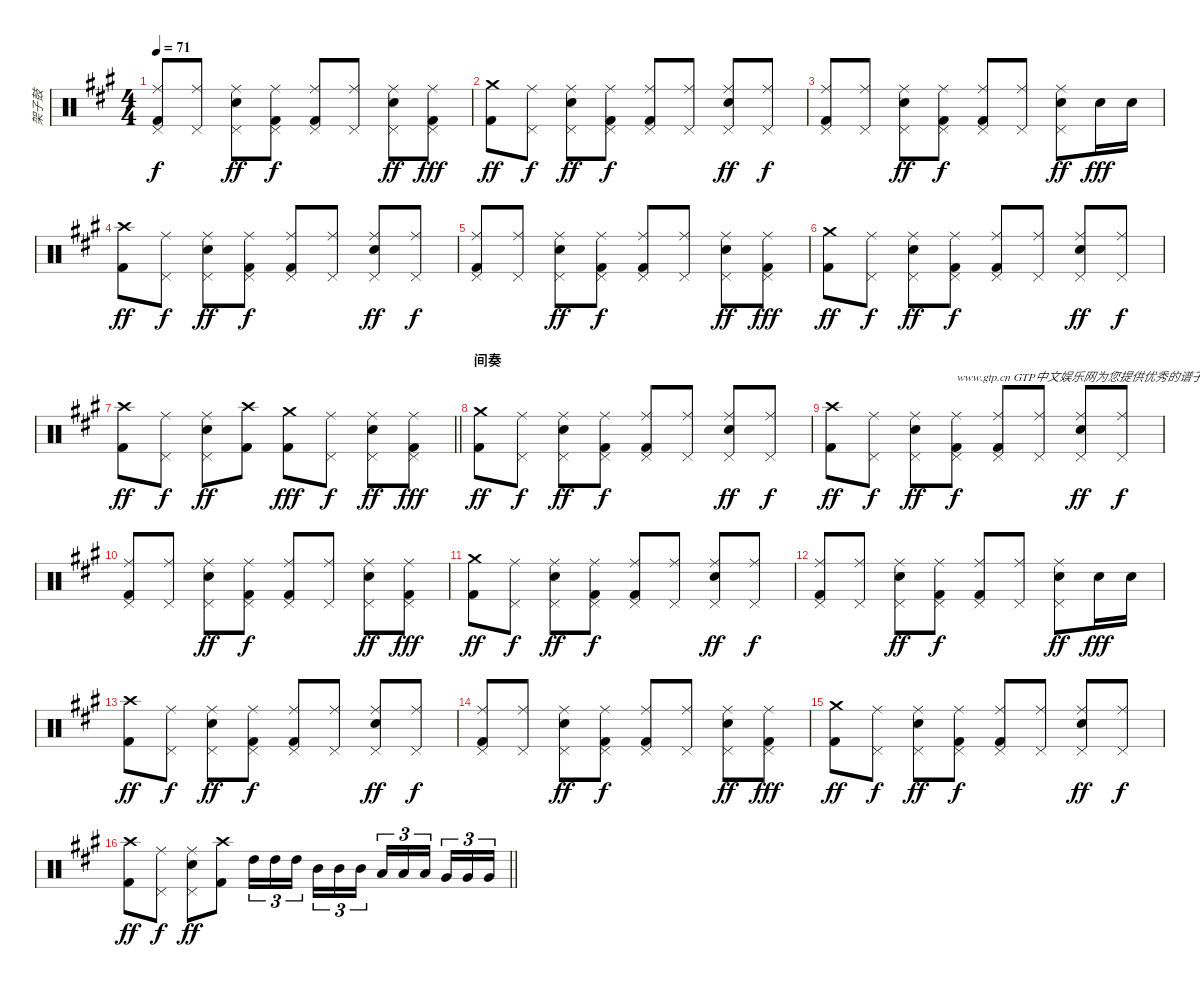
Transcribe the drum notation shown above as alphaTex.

\track ("架子鼓" "架子鼓") {instrument percussion}
\staff {score}
\articulation defaults
\ts (4 4)
\tempo 71
\clef neutral
\ks a
("Ride (middle)" "Pedal Hi-Hat (hit)" "Kick (hit) 2").8{dy f} ("Ride (middle)" "Pedal Hi-Hat (hit)").8 ("Ride (middle)" "Electric Snare (hit)" "Pedal Hi-Hat (hit)").8{dy ff} ("Ride (middle)" "Pedal Hi-Hat (hit)" "Kick (hit) 2").8{dy f} ("Ride (middle)" "Pedal Hi-Hat (hit)" "Kick (hit) 2").8 ("Ride (middle)" "Pedal Hi-Hat (hit)").8 ("Ride (middle)" "Electric Snare (hit)" "Pedal Hi-Hat (hit)").8{dy ff} ("Ride (middle)" "Pedal Hi-Hat (hit)" "Kick (hit) 2").8{dy fff} |
("Crash medium (hit)" "Kick (hit) 2").8{dy ff} ("Ride (middle)" "Pedal Hi-Hat (hit)").8{dy f} ("Ride (middle)" "Electric Snare (hit)" "Pedal Hi-Hat (hit)").8{dy ff} ("Ride (middle)" "Pedal Hi-Hat (hit)" "Kick (hit) 2").8{dy f} ("Ride (middle)" "Pedal Hi-Hat (hit)" "Kick (hit) 2").8 ("Ride (middle)" "Pedal Hi-Hat (hit)").8 ("Ride (middle)" "Electric Snare (hit)" "Pedal Hi-Hat (hit)").8{dy ff} ("Ride (middle)" "Pedal Hi-Hat (hit)").8{dy f} |
("Ride (middle)" "Pedal Hi-Hat (hit)" "Kick (hit) 2").8 ("Ride (middle)" "Pedal Hi-Hat (hit)").8 ("Ride (middle)" "Electric Snare (hit)" "Pedal Hi-Hat (hit)").8{dy ff} ("Ride (middle)" "Pedal Hi-Hat (hit)" "Kick (hit) 2").8{dy f} ("Ride (middle)" "Pedal Hi-Hat (hit)" "Kick (hit) 2").8 ("Ride (middle)" "Pedal Hi-Hat (hit)").8 ("Ride (middle)" "Electric Snare (hit)" "Pedal Hi-Hat (hit)").8{dy ff} "Electric Snare (hit)".16{dy fff} "Electric Snare (hit)".16 |
("Crash high (hit)" "Kick (hit) 2").8{dy ff} ("Ride (middle)" "Pedal Hi-Hat (hit)").8{dy f} ("Ride (middle)" "Electric Snare (hit)" "Pedal Hi-Hat (hit)").8{dy ff} ("Ride (middle)" "Pedal Hi-Hat (hit)" "Kick (hit) 2").8{dy f} ("Ride (middle)" "Pedal Hi-Hat (hit)" "Kick (hit) 2").8 ("Ride (middle)" "Pedal Hi-Hat (hit)").8 ("Ride (middle)" "Electric Snare (hit)" "Pedal Hi-Hat (hit)").8{dy ff} ("Ride (middle)" "Pedal Hi-Hat (hit)").8{dy f} |
("Ride (middle)" "Pedal Hi-Hat (hit)" "Kick (hit) 2").8 ("Ride (middle)" "Pedal Hi-Hat (hit)").8 ("Ride (middle)" "Electric Snare (hit)" "Pedal Hi-Hat (hit)").8{dy ff} ("Ride (middle)" "Pedal Hi-Hat (hit)" "Kick (hit) 2").8{dy f} ("Ride (middle)" "Pedal Hi-Hat (hit)" "Kick (hit) 2").8 ("Ride (middle)" "Pedal Hi-Hat (hit)").8 ("Ride (middle)" "Electric Snare (hit)" "Pedal Hi-Hat (hit)").8{dy ff} ("Ride (middle)" "Pedal Hi-Hat (hit)" "Kick (hit) 2").8{dy fff} |
("Crash medium (hit)" "Kick (hit) 2").8{dy ff} ("Ride (middle)" "Pedal Hi-Hat (hit)").8{dy f} ("Ride (middle)" "Electric Snare (hit)" "Pedal Hi-Hat (hit)").8{dy ff} ("Ride (middle)" "Pedal Hi-Hat (hit)" "Kick (hit) 2").8{dy f} ("Ride (middle)" "Pedal Hi-Hat (hit)" "Kick (hit) 2").8 ("Ride (middle)" "Pedal Hi-Hat (hit)").8 ("Ride (middle)" "Electric Snare (hit)" "Pedal Hi-Hat (hit)").8{dy ff} ("Ride (middle)" "Pedal Hi-Hat (hit)").8{dy f} |
\barLineRight lightlight
("Crash high (hit)" "Kick (hit) 2").8{dy ff} ("Ride (middle)" "Pedal Hi-Hat (hit)").8{dy f} ("Ride (middle)" "Electric Snare (hit)" "Pedal Hi-Hat (hit)").8{dy ff} ("Crash high (hit)" "Kick (hit) 2").8 ("Crash medium (hit)" "Kick (hit) 2").8{dy fff} ("Ride (middle)" "Pedal Hi-Hat (hit)").8{dy f} ("Ride (middle)" "Electric Snare (hit)" "Pedal Hi-Hat (hit)").8{dy ff} ("Ride (middle)" "Pedal Hi-Hat (hit)" "Kick (hit) 2").8{dy fff} |
\section ("" "间奏")
("Crash medium (hit)" "Kick (hit) 2").8{dy ff} ("Ride (middle)" "Pedal Hi-Hat (hit)").8{dy f} ("Ride (middle)" "Electric Snare (hit)" "Pedal Hi-Hat (hit)").8{dy ff} ("Ride (middle)" "Pedal Hi-Hat (hit)" "Kick (hit) 2").8{dy f} ("Ride (middle)" "Pedal Hi-Hat (hit)" "Kick (hit) 2").8 ("Ride (middle)" "Pedal Hi-Hat (hit)").8 ("Ride (middle)" "Electric Snare (hit)" "Pedal Hi-Hat (hit)").8{dy ff} ("Ride (middle)" "Pedal Hi-Hat (hit)").8{dy f} |
("Crash high (hit)" "Kick (hit) 2").8{dy ff} ("Ride (middle)" "Pedal Hi-Hat (hit)").8{dy f} ("Ride (middle)" "Electric Snare (hit)" "Pedal Hi-Hat (hit)").8{dy ff} ("Ride (middle)" "Pedal Hi-Hat (hit)" "Kick (hit) 2").8{txt "www.gtp.cn GTP中文娱乐网为您提供优秀的谱子" dy f} ("Ride (middle)" "Pedal Hi-Hat (hit)" "Kick (hit) 2").8 ("Ride (middle)" "Pedal Hi-Hat (hit)").8 ("Ride (middle)" "Electric Snare (hit)" "Pedal Hi-Hat (hit)").8{dy ff} ("Ride (middle)" "Pedal Hi-Hat (hit)").8{dy f} |
("Ride (middle)" "Pedal Hi-Hat (hit)" "Kick (hit) 2").8 ("Ride (middle)" "Pedal Hi-Hat (hit)").8 ("Ride (middle)" "Electric Snare (hit)" "Pedal Hi-Hat (hit)").8{dy ff} ("Ride (middle)" "Pedal Hi-Hat (hit)" "Kick (hit) 2").8{dy f} ("Ride (middle)" "Pedal Hi-Hat (hit)" "Kick (hit) 2").8 ("Ride (middle)" "Pedal Hi-Hat (hit)").8 ("Ride (middle)" "Electric Snare (hit)" "Pedal Hi-Hat (hit)").8{dy ff} ("Ride (middle)" "Pedal Hi-Hat (hit)" "Kick (hit) 2").8{dy fff} |
("Crash medium (hit)" "Kick (hit) 2").8{dy ff} ("Ride (middle)" "Pedal Hi-Hat (hit)").8{dy f} ("Ride (middle)" "Electric Snare (hit)" "Pedal Hi-Hat (hit)").8{dy ff} ("Ride (middle)" "Pedal Hi-Hat (hit)" "Kick (hit) 2").8{dy f} ("Ride (middle)" "Pedal Hi-Hat (hit)" "Kick (hit) 2").8 ("Ride (middle)" "Pedal Hi-Hat (hit)").8 ("Ride (middle)" "Electric Snare (hit)" "Pedal Hi-Hat (hit)").8{dy ff} ("Ride (middle)" "Pedal Hi-Hat (hit)").8{dy f} |
("Ride (middle)" "Pedal Hi-Hat (hit)" "Kick (hit) 2").8 ("Ride (middle)" "Pedal Hi-Hat (hit)").8 ("Ride (middle)" "Electric Snare (hit)" "Pedal Hi-Hat (hit)").8{dy ff} ("Ride (middle)" "Pedal Hi-Hat (hit)" "Kick (hit) 2").8{dy f} ("Ride (middle)" "Pedal Hi-Hat (hit)" "Kick (hit) 2").8 ("Ride (middle)" "Pedal Hi-Hat (hit)").8 ("Ride (middle)" "Electric Snare (hit)" "Pedal Hi-Hat (hit)").8{dy ff} "Electric Snare (hit)".16{dy fff} "Electric Snare (hit)".16 |
("Crash high (hit)" "Kick (hit) 2").8{dy ff} ("Ride (middle)" "Pedal Hi-Hat (hit)").8{dy f} ("Ride (middle)" "Electric Snare (hit)" "Pedal Hi-Hat (hit)").8{dy ff} ("Ride (middle)" "Pedal Hi-Hat (hit)" "Kick (hit) 2").8{dy f} ("Ride (middle)" "Pedal Hi-Hat (hit)" "Kick (hit) 2").8 ("Ride (middle)" "Pedal Hi-Hat (hit)").8 ("Ride (middle)" "Electric Snare (hit)" "Pedal Hi-Hat (hit)").8{dy ff} ("Ride (middle)" "Pedal Hi-Hat (hit)").8{dy f} |
("Ride (middle)" "Pedal Hi-Hat (hit)" "Kick (hit) 2").8 ("Ride (middle)" "Pedal Hi-Hat (hit)").8 ("Ride (middle)" "Electric Snare (hit)" "Pedal Hi-Hat (hit)").8{dy ff} ("Ride (middle)" "Pedal Hi-Hat (hit)" "Kick (hit) 2").8{dy f} ("Ride (middle)" "Pedal Hi-Hat (hit)" "Kick (hit) 2").8 ("Ride (middle)" "Pedal Hi-Hat (hit)").8 ("Ride (middle)" "Electric Snare (hit)" "Pedal Hi-Hat (hit)").8{dy ff} ("Ride (middle)" "Pedal Hi-Hat (hit)" "Kick (hit) 2").8{dy fff} |
("Crash medium (hit)" "Kick (hit) 2").8{dy ff} ("Ride (middle)" "Pedal Hi-Hat (hit)").8{dy f} ("Ride (middle)" "Electric Snare (hit)" "Pedal Hi-Hat (hit)").8{dy ff} ("Ride (middle)" "Pedal Hi-Hat (hit)" "Kick (hit) 2").8{dy f} ("Ride (middle)" "Pedal Hi-Hat (hit)" "Kick (hit) 2").8 ("Ride (middle)" "Pedal Hi-Hat (hit)").8 ("Ride (middle)" "Electric Snare (hit)" "Pedal Hi-Hat (hit)").8{dy ff} ("Ride (middle)" "Pedal Hi-Hat (hit)").8{dy f} |
\barLineRight lightlight
("Crash high (hit)" "Kick (hit) 2").8{dy ff} ("Ride (middle)" "Pedal Hi-Hat (hit)").8{dy f} ("Ride (middle)" "Electric Snare (hit)" "Pedal Hi-Hat (hit)").8{dy ff} ("Crash high (hit)" "Kick (hit) 2").8 "High Tom (hit)".16{tu (3 2)} "High Tom (hit)".16{tu (3 2)} "High Tom (hit)".16{tu (3 2) beam splitsecondary} "Mid Tom (hit)".16{tu (3 2)} "Mid Tom (hit)".16{tu (3 2)} "Mid Tom (hit)".16{tu (3 2)} "Low Tom (hit)".16{tu (3 2)} "Low Tom (hit)".16{tu (3 2)} "Low Tom (hit)".16{tu (3 2) beam splitsecondary} "Very Low Tom (hit)".16{tu (3 2)} "Very Low Tom (hit)".16{tu (3 2)} "Very Low Tom (hit)".16{tu (3 2)}
